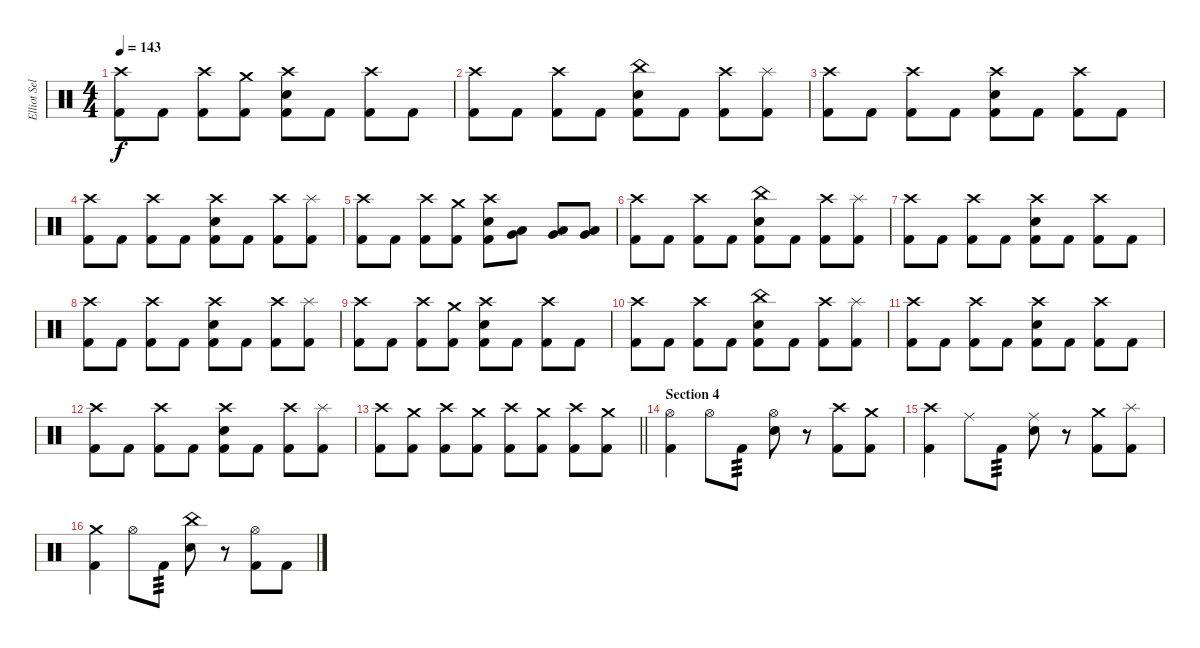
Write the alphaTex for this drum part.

\track ("Elliot Sellers" "Elliot Sel") {instrument percussion}
\staff {score}
\articulation defaults
\ts (4 4)
\tempo 143
\clef neutral
\ks c
("Crash high (hit)" "Kick (hit) 2").8{dy f} "Kick (hit) 2".8 ("Crash high (hit)" "Kick (hit) 2").8 ("Crash medium (hit)" "Kick (hit) 2").8 ("Electric Snare (hit)" "Crash high (hit)" "Kick (hit) 2").8 "Kick (hit) 2".8 ("Crash high (hit)" "Kick (hit) 2").8 "Kick (hit) 2".8 |
("Crash high (hit)" "Kick (hit) 2").8 "Kick (hit) 2".8 ("Crash high (hit)" "Kick (hit) 2").8 "Kick (hit) 2".8 ("Electric Snare (hit)" "China (hit)" "Kick (hit) 2").8 "Kick (hit) 2".8 ("Crash high (hit)" "Kick (hit) 2").8 ("Splash (hit)" "Kick (hit) 2").8 |
("Crash high (hit)" "Kick (hit) 2").8 "Kick (hit) 2".8 ("Crash high (hit)" "Kick (hit) 2").8 "Kick (hit) 2".8 ("Electric Snare (hit)" "Crash high (hit)" "Kick (hit) 2").8 "Kick (hit) 2".8 ("Crash high (hit)" "Kick (hit) 2").8 "Kick (hit) 2".8 |
("Crash high (hit)" "Kick (hit) 2").8 "Kick (hit) 2".8 ("Crash high (hit)" "Kick (hit) 2").8 "Kick (hit) 2".8 ("Electric Snare (hit)" "Crash high (hit)" "Kick (hit) 2").8 "Kick (hit) 2".8 ("Crash high (hit)" "Kick (hit) 2").8 ("Splash (hit)" "Kick (hit) 2").8 |
("Crash high (hit)" "Kick (hit) 2").8 "Kick (hit) 2".8 ("Crash high (hit)" "Kick (hit) 2").8 ("Crash medium (hit)" "Kick (hit) 2").8 ("Electric Snare (hit)" "Crash high (hit)" "Kick (hit) 2").8 ("Low Tom (hit)" "Very Low Tom (hit)").8 ("Low Tom (hit)" "Very Low Tom (hit)").8 ("Low Tom (hit)" "Very Low Tom (hit)").8 |
("Crash high (hit)" "Kick (hit) 2").8 "Kick (hit) 2".8 ("Crash high (hit)" "Kick (hit) 2").8 "Kick (hit) 2".8 ("Electric Snare (hit)" "China (hit)" "Kick (hit) 2").8 "Kick (hit) 2".8 ("Crash high (hit)" "Kick (hit) 2").8 ("Splash (hit)" "Kick (hit) 2").8 |
("Crash high (hit)" "Kick (hit) 2").8 "Kick (hit) 2".8 ("Crash high (hit)" "Kick (hit) 2").8 "Kick (hit) 2".8 ("Electric Snare (hit)" "Crash high (hit)" "Kick (hit) 2").8 "Kick (hit) 2".8 ("Crash high (hit)" "Kick (hit) 2").8 "Kick (hit) 2".8 |
("Crash high (hit)" "Kick (hit) 2").8 "Kick (hit) 2".8 ("Crash high (hit)" "Kick (hit) 2").8 "Kick (hit) 2".8 ("Electric Snare (hit)" "Crash high (hit)" "Kick (hit) 2").8 "Kick (hit) 2".8 ("Crash high (hit)" "Kick (hit) 2").8 ("Splash (hit)" "Kick (hit) 2").8 |
("Crash high (hit)" "Kick (hit) 2").8 "Kick (hit) 2".8 ("Crash high (hit)" "Kick (hit) 2").8 ("Crash medium (hit)" "Kick (hit) 2").8 ("Electric Snare (hit)" "Crash high (hit)" "Kick (hit) 2").8 "Kick (hit) 2".8 ("Crash high (hit)" "Kick (hit) 2").8 "Kick (hit) 2".8 |
("Crash high (hit)" "Kick (hit) 2").8 "Kick (hit) 2".8 ("Crash high (hit)" "Kick (hit) 2").8 "Kick (hit) 2".8 ("Electric Snare (hit)" "China (hit)" "Kick (hit) 2").8 "Kick (hit) 2".8 ("Crash high (hit)" "Kick (hit) 2").8 ("Splash (hit)" "Kick (hit) 2").8 |
("Crash high (hit)" "Kick (hit) 2").8 "Kick (hit) 2".8 ("Crash high (hit)" "Kick (hit) 2").8 "Kick (hit) 2".8 ("Electric Snare (hit)" "Crash high (hit)" "Kick (hit) 2").8 "Kick (hit) 2".8 ("Crash high (hit)" "Kick (hit) 2").8 "Kick (hit) 2".8 |
("Crash high (hit)" "Kick (hit) 2").8 "Kick (hit) 2".8 ("Crash high (hit)" "Kick (hit) 2").8 "Kick (hit) 2".8 ("Electric Snare (hit)" "Crash high (hit)" "Kick (hit) 2").8 "Kick (hit) 2".8 ("Crash high (hit)" "Kick (hit) 2").8 ("Splash (hit)" "Kick (hit) 2").8 |
\barLineRight lightlight
("Crash high (hit)" "Kick (hit) 2").8 ("Crash medium (hit)" "Kick (hit) 2").8 ("Crash high (hit)" "Kick (hit) 2").8 ("Crash medium (hit)" "Kick (hit) 2").8 ("Crash high (hit)" "Kick (hit) 2").8 ("Crash medium (hit)" "Kick (hit) 2").8 ("Crash high (hit)" "Kick (hit) 2").8 ("Crash medium (hit)" "Kick (hit) 2").8 |
\section ("" "Section 4")
("Hi-Hat (open)" "Kick (hit) 2").4 "Hi-Hat (open)".8 "Kick (hit) 2".8{tp 3} ("Hi-Hat (open)" "Electric Snare (hit)").8 r.8 ("Crash high (hit)" "Kick (hit) 2").8 ("Crash medium (hit)" "Kick (hit) 2").8 |
("Crash high (hit)" "Kick (hit) 2").4 "Ride (middle)".8 "Kick (hit) 2".8{tp 3} ("Ride (middle)" "Electric Snare (hit)").8 r.8 ("Crash medium (hit)" "Kick (hit) 2").8 ("Splash (hit)" "Kick (hit) 2").8 |
("Crash medium (hit)" "Kick (hit) 2").4 "Hi-Hat (open)".8 "Kick (hit) 2".8{tp 3} ("China (hit)" "Electric Snare (hit)").8 r.8 ("Hi-Hat (open)" "Kick (hit) 2").8 "Kick (hit) 2".8
